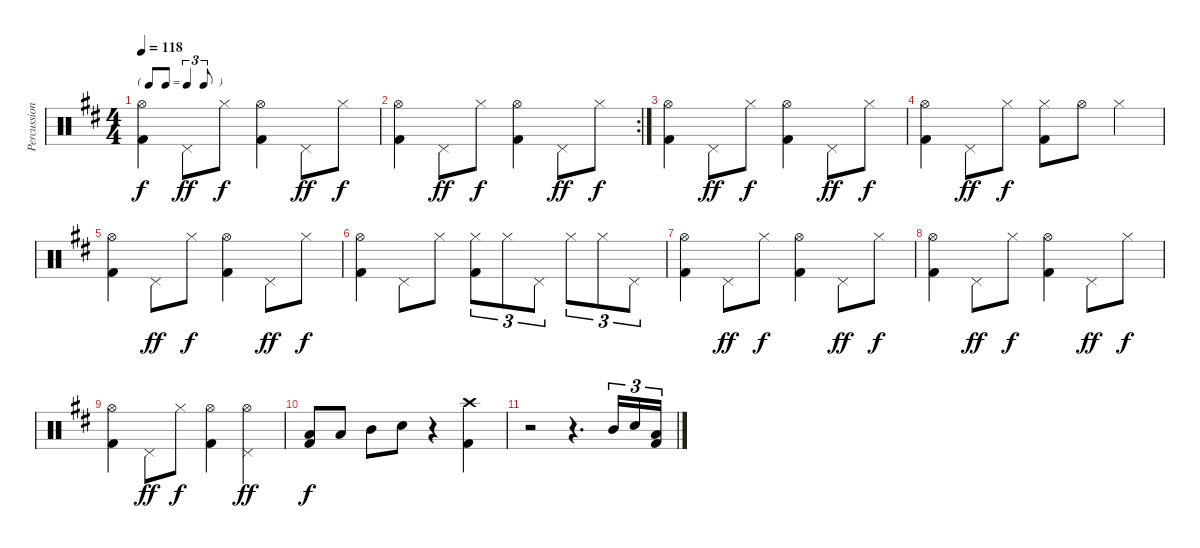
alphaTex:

\track ("Percussion" "Percussion") {instrument percussion}
\staff {score}
\articulation defaults
\ts (4 4)
\tf triplet8th
\tempo 118
\clef neutral
\ks d
("Hi-Hat (open)" "Kick (hit) 2").4{dy f} "Pedal Hi-Hat (hit)".8{dy ff} "Hi-Hat (closed)".8{dy f} ("Hi-Hat (open)" "Kick (hit) 2").4 "Pedal Hi-Hat (hit)".8{dy ff} "Hi-Hat (closed)".8{dy f} |
\rc 2
("Hi-Hat (open)" "Kick (hit) 2").4 "Pedal Hi-Hat (hit)".8{dy ff} "Hi-Hat (closed)".8{dy f} ("Hi-Hat (open)" "Kick (hit) 2").4 "Pedal Hi-Hat (hit)".8{dy ff} "Hi-Hat (closed)".8{dy f} |
("Hi-Hat (open)" "Kick (hit) 2").4 "Pedal Hi-Hat (hit)".8{dy ff} "Hi-Hat (closed)".8{dy f} ("Hi-Hat (open)" "Kick (hit) 2").4 "Pedal Hi-Hat (hit)".8{dy ff} "Hi-Hat (closed)".8{dy f} |
("Hi-Hat (open)" "Kick (hit) 2").4 "Pedal Hi-Hat (hit)".8{dy ff} "Hi-Hat (closed)".8{dy f} ("Hi-Hat (closed)" "Kick (hit) 2").8 "Hi-Hat (open)".8 "Hi-Hat (closed)".4 |
("Hi-Hat (open)" "Kick (hit) 2").4 "Pedal Hi-Hat (hit)".8{dy ff} "Hi-Hat (closed)".8{dy f} ("Hi-Hat (open)" "Kick (hit) 2").4 "Pedal Hi-Hat (hit)".8{dy ff} "Hi-Hat (closed)".8{dy f} |
("Hi-Hat (open)" "Kick (hit) 2").4 "Pedal Hi-Hat (hit)".8 "Hi-Hat (closed)".8 ("Hi-Hat (closed)" "Kick (hit) 2").8{tu (3 2)} "Hi-Hat (closed)".8{tu (3 2)} "Pedal Hi-Hat (hit)".8{tu (3 2)} "Hi-Hat (closed)".8{tu (3 2)} "Hi-Hat (closed)".8{tu (3 2)} "Pedal Hi-Hat (hit)".8{tu (3 2)} |
("Hi-Hat (open)" "Kick (hit) 2").4 "Pedal Hi-Hat (hit)".8{dy ff} "Hi-Hat (closed)".8{dy f} ("Hi-Hat (open)" "Kick (hit) 2").4 "Pedal Hi-Hat (hit)".8{dy ff} "Hi-Hat (closed)".8{dy f} |
("Hi-Hat (open)" "Kick (hit) 2").4 "Pedal Hi-Hat (hit)".8{dy ff} "Hi-Hat (closed)".8{dy f} ("Hi-Hat (open)" "Kick (hit) 2").4 "Pedal Hi-Hat (hit)".8{dy ff} "Hi-Hat (closed)".8{dy f} |
("Hi-Hat (open)" "Kick (hit) 2").4 "Pedal Hi-Hat (hit)".8{dy ff} "Hi-Hat (closed)".8{dy f} ("Hi-Hat (open)" "Kick (hit) 2").4 ("Hi-Hat (open)" "Pedal Hi-Hat (hit)").4{dy ff} |
("Low Floor Tom (hit)" "Kick (hit) 2").8{dy f} "Low Tom (hit)".8 "Mid Tom (hit)".8 "Snare (hit) 2".8 r.4 ("Crash high (hit)" "Kick (hit) 2").4 |
r.2 r.4{d} "Mid Tom (hit)".16{tu (3 2)} "Snare (hit) 2".16{tu (3 2)} ("Low Floor Tom (hit)" "Kick (hit) 2").16{tu (3 2)}
